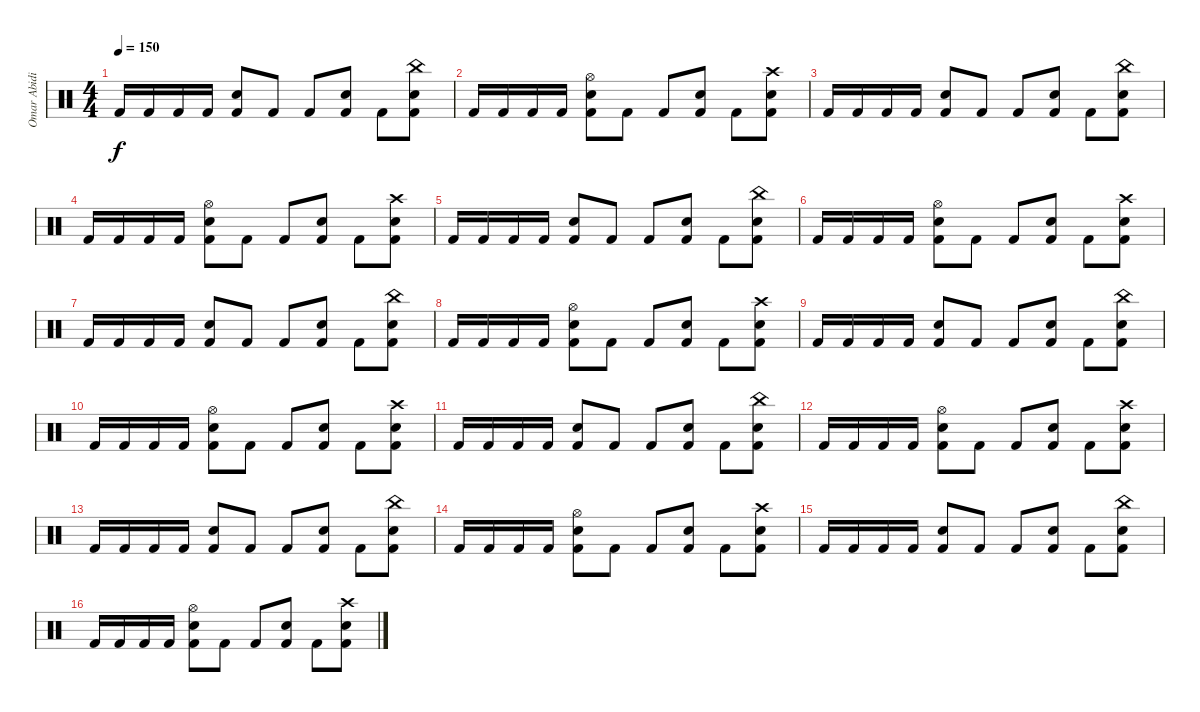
\track ("Omar Abidi" "Omar Abidi") {instrument percussion}
\staff {score}
\articulation defaults
\ts (4 4)
\tempo 150
\clef neutral
\ks c "Kick (hit) 2".16{dy f} "Kick (hit) 2".16 "Kick (hit) 2".16 "Kick (hit) 2".16
("Snare (hit) 2" "Kick (hit) 2").8 "Kick (hit) 2".8 "Kick (hit) 2".8 ("Snare (hit) 2" "Kick (hit) 2").8 "Kick (hit) 2".8 ("China (hit)" "Snare (hit) 2" "Kick (hit) 2").8 |
"Kick (hit) 2".16 "Kick (hit) 2".16 "Kick (hit) 2".16 "Kick (hit) 2".16 ("Hi-Hat (open)" "Snare (hit) 2" "Kick (hit) 2").8 "Kick (hit) 2".8 "Kick (hit) 2".8 ("Snare (hit) 2" "Kick (hit) 2").8 "Kick (hit) 2".8 ("Crash high (hit)" "Snare (hit) 2" "Kick (hit) 2").8 |
"Kick (hit) 2".16 "Kick (hit) 2".16 "Kick (hit) 2".16 "Kick (hit) 2".16 ("Snare (hit) 2" "Kick (hit) 2").8 "Kick (hit) 2".8 "Kick (hit) 2".8 ("Snare (hit) 2" "Kick (hit) 2").8 "Kick (hit) 2".8 ("China (hit)" "Snare (hit) 2" "Kick (hit) 2").8 |
"Kick (hit) 2".16 "Kick (hit) 2".16 "Kick (hit) 2".16 "Kick (hit) 2".16 ("Hi-Hat (open)" "Snare (hit) 2" "Kick (hit) 2").8 "Kick (hit) 2".8 "Kick (hit) 2".8 ("Snare (hit) 2" "Kick (hit) 2").8 "Kick (hit) 2".8 ("Crash high (hit)" "Snare (hit) 2" "Kick (hit) 2").8 |
"Kick (hit) 2".16 "Kick (hit) 2".16 "Kick (hit) 2".16 "Kick (hit) 2".16 ("Snare (hit) 2" "Kick (hit) 2").8 "Kick (hit) 2".8 "Kick (hit) 2".8 ("Snare (hit) 2" "Kick (hit) 2").8 "Kick (hit) 2".8 ("China (hit)" "Snare (hit) 2" "Kick (hit) 2").8 |
"Kick (hit) 2".16 "Kick (hit) 2".16 "Kick (hit) 2".16 "Kick (hit) 2".16 ("Hi-Hat (open)" "Snare (hit) 2" "Kick (hit) 2").8 "Kick (hit) 2".8 "Kick (hit) 2".8 ("Snare (hit) 2" "Kick (hit) 2").8 "Kick (hit) 2".8 ("Crash high (hit)" "Snare (hit) 2" "Kick (hit) 2").8 |
"Kick (hit) 2".16 "Kick (hit) 2".16 "Kick (hit) 2".16 "Kick (hit) 2".16 ("Snare (hit) 2" "Kick (hit) 2").8 "Kick (hit) 2".8 "Kick (hit) 2".8 ("Snare (hit) 2" "Kick (hit) 2").8 "Kick (hit) 2".8 ("China (hit)" "Snare (hit) 2" "Kick (hit) 2").8 |
"Kick (hit) 2".16 "Kick (hit) 2".16 "Kick (hit) 2".16 "Kick (hit) 2".16 ("Hi-Hat (open)" "Snare (hit) 2" "Kick (hit) 2").8 "Kick (hit) 2".8 "Kick (hit) 2".8 ("Snare (hit) 2" "Kick (hit) 2").8 "Kick (hit) 2".8 ("Crash high (hit)" "Snare (hit) 2" "Kick (hit) 2").8 |
"Kick (hit) 2".16 "Kick (hit) 2".16 "Kick (hit) 2".16 "Kick (hit) 2".16 ("Snare (hit) 2" "Kick (hit) 2").8 "Kick (hit) 2".8 "Kick (hit) 2".8 ("Snare (hit) 2" "Kick (hit) 2").8 "Kick (hit) 2".8 ("China (hit)" "Snare (hit) 2" "Kick (hit) 2").8 |
"Kick (hit) 2".16 "Kick (hit) 2".16 "Kick (hit) 2".16 "Kick (hit) 2".16 ("Hi-Hat (open)" "Snare (hit) 2" "Kick (hit) 2").8 "Kick (hit) 2".8 "Kick (hit) 2".8 ("Snare (hit) 2" "Kick (hit) 2").8 "Kick (hit) 2".8 ("Crash high (hit)" "Snare (hit) 2" "Kick (hit) 2").8 |
"Kick (hit) 2".16 "Kick (hit) 2".16 "Kick (hit) 2".16 "Kick (hit) 2".16 ("Snare (hit) 2" "Kick (hit) 2").8 "Kick (hit) 2".8 "Kick (hit) 2".8 ("Snare (hit) 2" "Kick (hit) 2").8 "Kick (hit) 2".8 ("China (hit)" "Snare (hit) 2" "Kick (hit) 2").8 |
"Kick (hit) 2".16 "Kick (hit) 2".16 "Kick (hit) 2".16 "Kick (hit) 2".16 ("Hi-Hat (open)" "Snare (hit) 2" "Kick (hit) 2").8 "Kick (hit) 2".8 "Kick (hit) 2".8 ("Snare (hit) 2" "Kick (hit) 2").8 "Kick (hit) 2".8 ("Crash high (hit)" "Snare (hit) 2" "Kick (hit) 2").8 |
"Kick (hit) 2".16 "Kick (hit) 2".16 "Kick (hit) 2".16 "Kick (hit) 2".16 ("Snare (hit) 2" "Kick (hit) 2").8 "Kick (hit) 2".8 "Kick (hit) 2".8 ("Snare (hit) 2" "Kick (hit) 2").8 "Kick (hit) 2".8 ("China (hit)" "Snare (hit) 2" "Kick (hit) 2").8 |
"Kick (hit) 2".16 "Kick (hit) 2".16 "Kick (hit) 2".16 "Kick (hit) 2".16 ("Hi-Hat (open)" "Snare (hit) 2" "Kick (hit) 2").8 "Kick (hit) 2".8 "Kick (hit) 2".8 ("Snare (hit) 2" "Kick (hit) 2").8 "Kick (hit) 2".8 ("Crash high (hit)" "Snare (hit) 2" "Kick (hit) 2").8 |
"Kick (hit) 2".16 "Kick (hit) 2".16 "Kick (hit) 2".16 "Kick (hit) 2".16 ("Snare (hit) 2" "Kick (hit) 2").8 "Kick (hit) 2".8 "Kick (hit) 2".8 ("Snare (hit) 2" "Kick (hit) 2").8 "Kick (hit) 2".8 ("China (hit)" "Snare (hit) 2" "Kick (hit) 2").8 |
"Kick (hit) 2".16 "Kick (hit) 2".16 "Kick (hit) 2".16 "Kick (hit) 2".16 ("Hi-Hat (open)" "Snare (hit) 2" "Kick (hit) 2").8 "Kick (hit) 2".8 "Kick (hit) 2".8 ("Snare (hit) 2" "Kick (hit) 2").8 "Kick (hit) 2".8 ("Crash high (hit)" "Snare (hit) 2" "Kick (hit) 2").8
